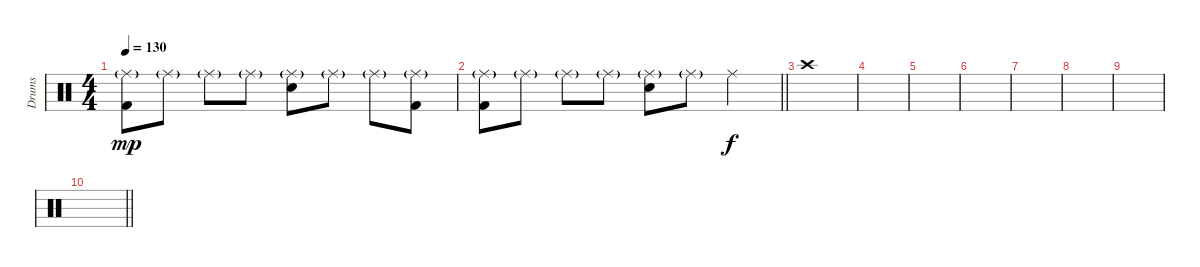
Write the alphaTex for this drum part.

\track ("Drums" "Drums") {instrument percussion}
\staff {score}
\articulation defaults
\ts (4 4)
\tempo 130
\clef neutral
\ks c
("Ride (middle)"{g} "Kick (hit) 2").8{dy mp} "Ride (middle)"{g}.8 "Ride (middle)"{g}.8 "Ride (middle)"{g}.8 ("Ride (middle)"{g} "Snare (hit) 2").8 "Ride (middle)"{g}.8 "Ride (middle)"{g}.8 ("Ride (middle)"{g} "Kick (hit) 2").8 |
\barLineRight lightlight
("Ride (middle)"{g} "Kick (hit) 2").8 "Ride (middle)"{g}.8 "Ride (middle)"{g}.8 "Ride (middle)"{g}.8 ("Ride (middle)"{g} "Snare (hit) 2").8 "Ride (middle)"{g}.8 "Ride (middle)".4{dy f} |
\section ("" "")
"Crash high (hit)".1 |
|
|
|
|
|
|
\barLineRight lightlight
